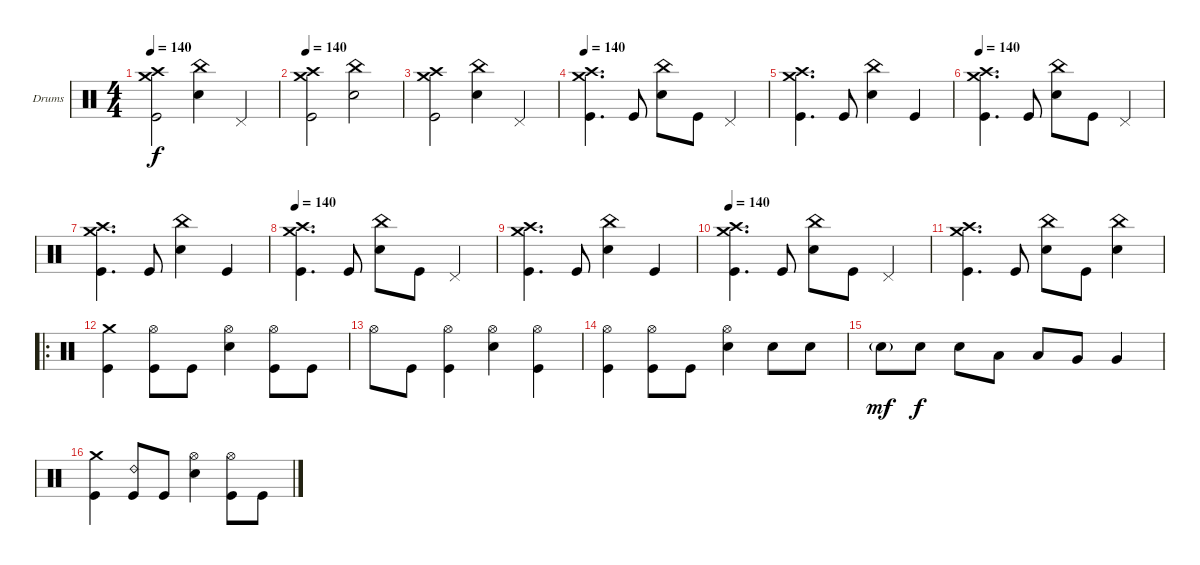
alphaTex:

\bracketExtendMode groupsimilarinstruments
\firstSystemTrackNameOrientation horizontal
\otherSystemsTrackNameOrientation horizontal
\track ("Drumkit" "Drums") {instrument percussion}
\staff {score}
\articulation defaults
\ts (4 4)
\tempo 140
\clef neutral
\ks c
("Crash medium (hit)" "Crash high (hit)" "Kick (hit)").2{dy f} ("China (hit)" "Snare (hit) 2").4 "Pedal Hi-Hat (hit)".4 |
\tempo 140
("Crash medium (hit)" "Crash high (hit)" "Kick (hit)").2 ("China (hit)" "Snare (hit) 2").2 |
("Crash medium (hit)" "Crash high (hit)" "Kick (hit)").2 ("China (hit)" "Snare (hit) 2").4 "Pedal Hi-Hat (hit)".4 |
\tempo 140
("Crash medium (hit)" "Crash high (hit)" "Kick (hit)").4{d} "Kick (hit)".8 ("China (hit)" "Snare (hit) 2").8 "Kick (hit)".8 "Pedal Hi-Hat (hit)".4 |
("Crash medium (hit)" "Crash high (hit)" "Kick (hit)").4{d} "Kick (hit)".8 ("China (hit)" "Snare (hit) 2").4 "Kick (hit)".4 |
\tempo 140
("Crash medium (hit)" "Crash high (hit)" "Kick (hit)").4{d} "Kick (hit)".8 ("China (hit)" "Snare (hit) 2").8 "Kick (hit)".8 "Pedal Hi-Hat (hit)".4 |
("Crash medium (hit)" "Crash high (hit)" "Kick (hit)").4{d} "Kick (hit)".8 ("China (hit)" "Snare (hit) 2").4 "Kick (hit)".4 |
\tempo 140
("Crash medium (hit)" "Crash high (hit)" "Kick (hit)").4{d} "Kick (hit)".8 ("China (hit)" "Snare (hit) 2").8 "Kick (hit)".8 "Pedal Hi-Hat (hit)".4 |
("Crash medium (hit)" "Crash high (hit)" "Kick (hit)").4{d} "Kick (hit)".8 ("China (hit)" "Snare (hit) 2").4 "Kick (hit)".4 |
\tempo 140
("Crash medium (hit)" "Crash high (hit)" "Kick (hit)").4{d} "Kick (hit)".8 ("China (hit)" "Snare (hit) 2").8 "Kick (hit)".8 "Pedal Hi-Hat (hit)".4 |
("Crash medium (hit)" "Crash high (hit)" "Kick (hit)").4{d} "Kick (hit)".8 ("China (hit)" "Snare (hit) 2").8 "Kick (hit)".8 ("China (hit)" "Snare (hit) 2").4 |
\ro
("Crash medium (hit)" "Kick (hit)").4 ("Hi-Hat (open)" "Kick (hit)").8 "Kick (hit)".8 ("Hi-Hat (open)" "Snare (hit) 2").4 ("Hi-Hat (open)" "Kick (hit)").8 "Kick (hit)".8 |
"Hi-Hat (open)".8 "Kick (hit)".8 ("Hi-Hat (open)" "Kick (hit)").4 ("Hi-Hat (open)" "Snare (hit) 2").4 ("Hi-Hat (open)" "Kick (hit)").4 |
("Hi-Hat (open)" "Kick (hit)").4 ("Hi-Hat (open)" "Kick (hit)").8 "Kick (hit)".8 ("Hi-Hat (open)" "Snare (hit) 2").4 "Snare (hit) 2".8 "Snare (hit) 2".8 |
"Snare (hit) 2"{g}.8{dy mf} "Snare (hit) 2".8{dy f} "Snare (hit) 2".8 "Low Tom (hit)".8 "Low Tom (hit)".8 "Very Low Tom (hit)".8 "Very Low Tom (hit)".4 |
("Crash medium (hit)" "Kick (hit)").4 ("Ride (bell) 2" "Kick (hit)").8 "Kick (hit)".8 ("Hi-Hat (open)" "Snare (hit) 2").4 ("Hi-Hat (open)" "Kick (hit)").8 "Kick (hit)".8
